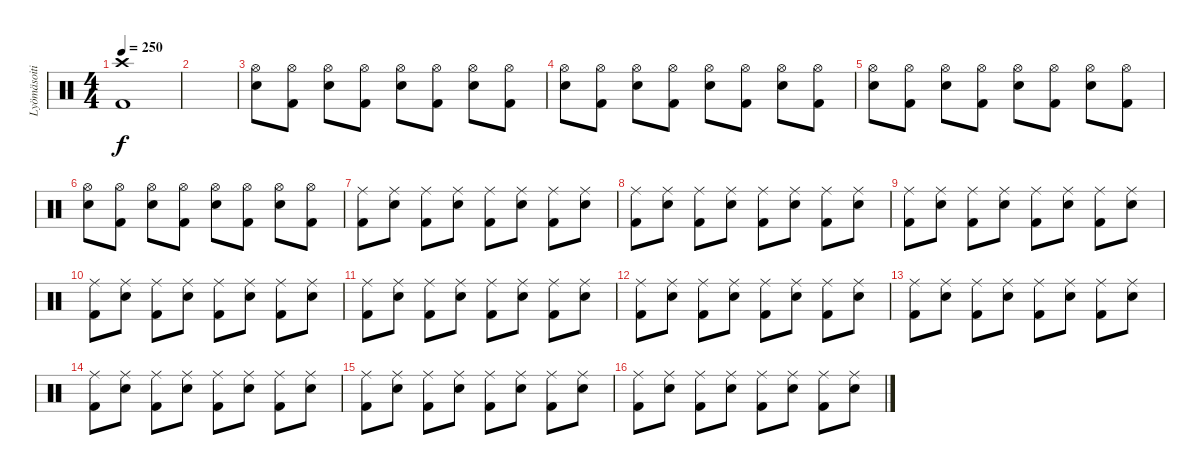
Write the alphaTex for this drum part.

\track ("Lyömäsoitin" "Lyömäsoiti") {instrument percussion}
\staff {score}
\articulation defaults
\ts (4 4)
\tempo 250
\clef neutral
\ks c
("Crash high (hit)" "Kick (hit) 2").1{dy f} |
|
("Hi-Hat (open)" "Electric Snare (hit)").8 ("Hi-Hat (open)" "Kick (hit) 2").8 ("Hi-Hat (open)" "Electric Snare (hit)").8 ("Hi-Hat (open)" "Kick (hit) 2").8 ("Hi-Hat (open)" "Electric Snare (hit)").8 ("Hi-Hat (open)" "Kick (hit) 2").8 ("Hi-Hat (open)" "Electric Snare (hit)").8 ("Hi-Hat (open)" "Kick (hit) 2").8 |
("Hi-Hat (open)" "Electric Snare (hit)").8 ("Hi-Hat (open)" "Kick (hit) 2").8 ("Hi-Hat (open)" "Electric Snare (hit)").8 ("Hi-Hat (open)" "Kick (hit) 2").8 ("Hi-Hat (open)" "Electric Snare (hit)").8 ("Hi-Hat (open)" "Kick (hit) 2").8 ("Hi-Hat (open)" "Electric Snare (hit)").8 ("Hi-Hat (open)" "Kick (hit) 2").8 |
("Hi-Hat (open)" "Electric Snare (hit)").8 ("Hi-Hat (open)" "Kick (hit) 2").8 ("Hi-Hat (open)" "Electric Snare (hit)").8 ("Hi-Hat (open)" "Kick (hit) 2").8 ("Hi-Hat (open)" "Electric Snare (hit)").8 ("Hi-Hat (open)" "Kick (hit) 2").8 ("Hi-Hat (open)" "Electric Snare (hit)").8 ("Hi-Hat (open)" "Kick (hit) 2").8 |
("Hi-Hat (open)" "Electric Snare (hit)").8 ("Hi-Hat (open)" "Kick (hit) 2").8 ("Hi-Hat (open)" "Electric Snare (hit)").8 ("Hi-Hat (open)" "Kick (hit) 2").8 ("Hi-Hat (open)" "Electric Snare (hit)").8 ("Hi-Hat (open)" "Kick (hit) 2").8 ("Hi-Hat (open)" "Electric Snare (hit)").8 ("Hi-Hat (open)" "Kick (hit) 2").8 |
("Ride (middle)" "Kick (hit) 2").8 ("Ride (middle)" "Electric Snare (hit)").8 ("Ride (middle)" "Kick (hit) 2").8 ("Ride (middle)" "Electric Snare (hit)").8 ("Ride (middle)" "Kick (hit) 2").8 ("Ride (middle)" "Electric Snare (hit)").8 ("Ride (middle)" "Kick (hit) 2").8 ("Ride (middle)" "Electric Snare (hit)").8 |
("Ride (middle)" "Kick (hit) 2").8 ("Ride (middle)" "Electric Snare (hit)").8 ("Ride (middle)" "Kick (hit) 2").8 ("Ride (middle)" "Electric Snare (hit)").8 ("Ride (middle)" "Kick (hit) 2").8 ("Ride (middle)" "Electric Snare (hit)").8 ("Ride (middle)" "Kick (hit) 2").8 ("Ride (middle)" "Electric Snare (hit)").8 |
("Ride (middle)" "Kick (hit) 2").8 ("Ride (middle)" "Electric Snare (hit)").8 ("Ride (middle)" "Kick (hit) 2").8 ("Ride (middle)" "Electric Snare (hit)").8 ("Ride (middle)" "Kick (hit) 2").8 ("Ride (middle)" "Electric Snare (hit)").8 ("Ride (middle)" "Kick (hit) 2").8 ("Ride (middle)" "Electric Snare (hit)").8 |
("Ride (middle)" "Kick (hit) 2").8 ("Ride (middle)" "Electric Snare (hit)").8 ("Ride (middle)" "Kick (hit) 2").8 ("Ride (middle)" "Electric Snare (hit)").8 ("Ride (middle)" "Kick (hit) 2").8 ("Ride (middle)" "Electric Snare (hit)").8 ("Ride (middle)" "Kick (hit) 2").8 ("Ride (middle)" "Electric Snare (hit)").8 |
("Ride (middle)" "Kick (hit) 2").8 ("Ride (middle)" "Electric Snare (hit)").8 ("Ride (middle)" "Kick (hit) 2").8 ("Ride (middle)" "Electric Snare (hit)").8 ("Ride (middle)" "Kick (hit) 2").8 ("Ride (middle)" "Electric Snare (hit)").8 ("Ride (middle)" "Kick (hit) 2").8 ("Ride (middle)" "Electric Snare (hit)").8 |
("Ride (middle)" "Kick (hit) 2").8 ("Ride (middle)" "Electric Snare (hit)").8 ("Ride (middle)" "Kick (hit) 2").8 ("Ride (middle)" "Electric Snare (hit)").8 ("Ride (middle)" "Kick (hit) 2").8 ("Ride (middle)" "Electric Snare (hit)").8 ("Ride (middle)" "Kick (hit) 2").8 ("Ride (middle)" "Electric Snare (hit)").8 |
("Ride (middle)" "Kick (hit) 2").8 ("Ride (middle)" "Electric Snare (hit)").8 ("Ride (middle)" "Kick (hit) 2").8 ("Ride (middle)" "Electric Snare (hit)").8 ("Ride (middle)" "Kick (hit) 2").8 ("Ride (middle)" "Electric Snare (hit)").8 ("Ride (middle)" "Kick (hit) 2").8 ("Ride (middle)" "Electric Snare (hit)").8 |
("Ride (middle)" "Kick (hit) 2").8 ("Ride (middle)" "Electric Snare (hit)").8 ("Ride (middle)" "Kick (hit) 2").8 ("Ride (middle)" "Electric Snare (hit)").8 ("Ride (middle)" "Kick (hit) 2").8 ("Ride (middle)" "Electric Snare (hit)").8 ("Ride (middle)" "Kick (hit) 2").8 ("Ride (middle)" "Electric Snare (hit)").8 |
("Ride (middle)" "Kick (hit) 2").8 ("Ride (middle)" "Electric Snare (hit)").8 ("Ride (middle)" "Kick (hit) 2").8 ("Ride (middle)" "Electric Snare (hit)").8 ("Ride (middle)" "Kick (hit) 2").8 ("Ride (middle)" "Electric Snare (hit)").8 ("Ride (middle)" "Kick (hit) 2").8 ("Ride (middle)" "Electric Snare (hit)").8 |
("Ride (middle)" "Kick (hit) 2").8 ("Ride (middle)" "Electric Snare (hit)").8 ("Ride (middle)" "Kick (hit) 2").8 ("Ride (middle)" "Electric Snare (hit)").8 ("Ride (middle)" "Kick (hit) 2").8 ("Ride (middle)" "Electric Snare (hit)").8 ("Ride (middle)" "Kick (hit) 2").8 ("Ride (middle)" "Electric Snare (hit)").8
